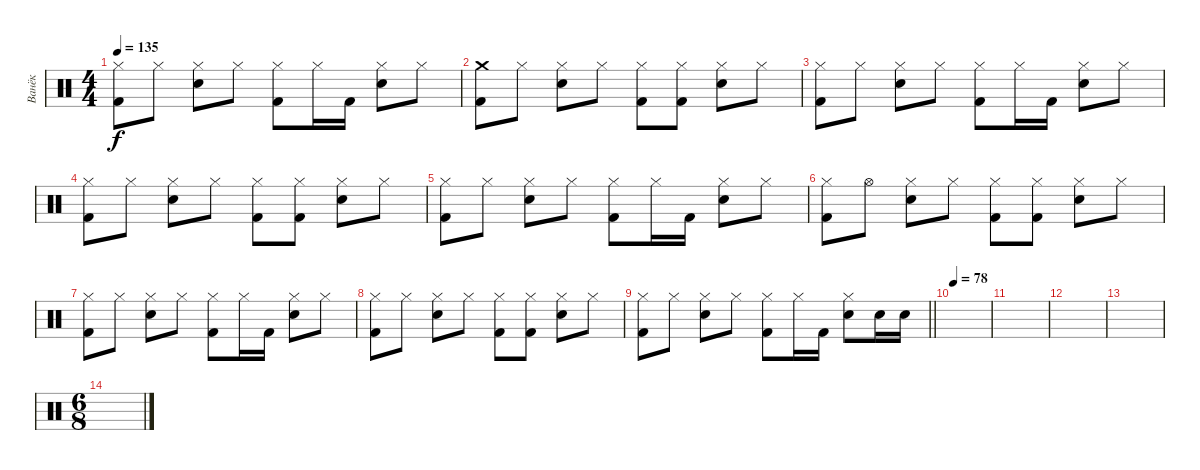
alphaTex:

\track ("Ванёк" "Ванёк") {instrument percussion}
\staff {score}
\articulation defaults
\ts (4 4)
\tempo 135
\clef neutral
\ks c
("Hi-Hat (closed)" "Kick (hit) 2").8{dy f} "Hi-Hat (closed)".8 ("Hi-Hat (closed)" "Snare (hit) 2").8 "Hi-Hat (closed)".8 ("Hi-Hat (closed)" "Kick (hit) 2").8 "Hi-Hat (closed)".16 "Kick (hit) 2".16 ("Hi-Hat (closed)" "Snare (hit) 2").8 "Hi-Hat (closed)".8 |
("Crash medium (hit)" "Kick (hit) 2").8 "Hi-Hat (closed)".8 ("Hi-Hat (closed)" "Snare (hit) 2").8 "Hi-Hat (closed)".8 ("Hi-Hat (closed)" "Kick (hit) 2").8 ("Hi-Hat (closed)" "Kick (hit) 2").8 ("Hi-Hat (closed)" "Snare (hit) 2").8 "Hi-Hat (closed)".8 |
("Hi-Hat (closed)" "Kick (hit) 2").8 "Hi-Hat (closed)".8 ("Hi-Hat (closed)" "Snare (hit) 2").8 "Hi-Hat (closed)".8 ("Hi-Hat (closed)" "Kick (hit) 2").8 "Hi-Hat (closed)".16 "Kick (hit) 2".16 ("Hi-Hat (closed)" "Snare (hit) 2").8 "Hi-Hat (closed)".8 |
("Hi-Hat (closed)" "Kick (hit) 2").8 "Hi-Hat (closed)".8 ("Hi-Hat (closed)" "Snare (hit) 2").8 "Hi-Hat (closed)".8 ("Hi-Hat (closed)" "Kick (hit) 2").8 ("Hi-Hat (closed)" "Kick (hit) 2").8 ("Hi-Hat (closed)" "Snare (hit) 2").8 "Hi-Hat (closed)".8 |
("Hi-Hat (closed)" "Kick (hit) 2").8 "Hi-Hat (closed)".8 ("Hi-Hat (closed)" "Snare (hit) 2").8 "Hi-Hat (closed)".8 ("Hi-Hat (closed)" "Kick (hit) 2").8 "Hi-Hat (closed)".16 "Kick (hit) 2".16 ("Hi-Hat (closed)" "Snare (hit) 2").8 "Hi-Hat (closed)".8 |
("Hi-Hat (closed)" "Kick (hit) 2").8 "Hi-Hat (open)".8 ("Hi-Hat (closed)" "Snare (hit) 2").8 "Hi-Hat (closed)".8 ("Hi-Hat (closed)" "Kick (hit) 2").8 ("Hi-Hat (closed)" "Kick (hit) 2").8 ("Hi-Hat (closed)" "Snare (hit) 2").8 "Hi-Hat (closed)".8 |
("Hi-Hat (closed)" "Kick (hit) 2").8 "Hi-Hat (closed)".8 ("Hi-Hat (closed)" "Snare (hit) 2").8 "Hi-Hat (closed)".8 ("Hi-Hat (closed)" "Kick (hit) 2").8 "Hi-Hat (closed)".16 "Kick (hit) 2".16 ("Hi-Hat (closed)" "Snare (hit) 2").8 "Hi-Hat (closed)".8 |
("Hi-Hat (closed)" "Kick (hit) 2").8 "Hi-Hat (closed)".8 ("Hi-Hat (closed)" "Snare (hit) 2").8 "Hi-Hat (closed)".8 ("Hi-Hat (closed)" "Kick (hit) 2").8 ("Hi-Hat (closed)" "Kick (hit) 2").8 ("Hi-Hat (closed)" "Snare (hit) 2").8 "Hi-Hat (closed)".8 |
\barLineRight lightlight
("Hi-Hat (closed)" "Kick (hit) 2").8 "Hi-Hat (closed)".8 ("Hi-Hat (closed)" "Snare (hit) 2").8 "Hi-Hat (closed)".8 ("Hi-Hat (closed)" "Kick (hit) 2").8 "Hi-Hat (closed)".16 "Kick (hit) 2".16 ("Hi-Hat (closed)" "Snare (hit) 2").8 "Snare (hit) 2".16 "Snare (hit) 2".16 |
\tempo 78
|
|
|
|
\ts (6 8)
